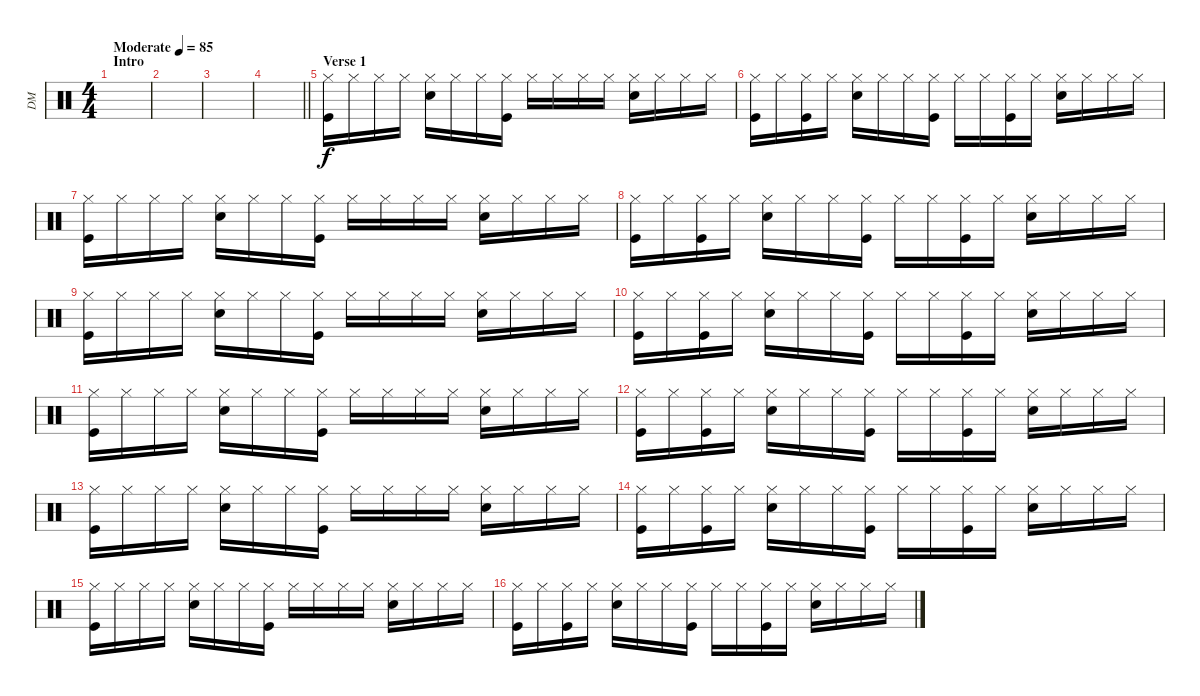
\track ("DM" "DM") {instrument percussion}
\staff {score}
\articulation defaults
\ts (4 4)
\section ("" "Intro")
\tempo (85 "Moderate")
\clef neutral
\ks c
|
|
|
\barLineRight lightlight
|
\section ("" "Verse 1")
("Hi-Hat (closed)" "Kick (hit)").16 "Hi-Hat (closed)".16 "Hi-Hat (closed)".16 "Hi-Hat (closed)".16 ("Hi-Hat (closed)" "Electric Snare (hit)").16 "Hi-Hat (closed)".16 "Hi-Hat (closed)".16 ("Hi-Hat (closed)" "Kick (hit)").16 "Hi-Hat (closed)".16 "Hi-Hat (closed)".16 "Hi-Hat (closed)".16 "Hi-Hat (closed)".16 ("Hi-Hat (closed)" "Electric Snare (hit)").16 "Hi-Hat (closed)".16 "Hi-Hat (closed)".16 "Hi-Hat (closed)".16 |
("Hi-Hat (closed)" "Kick (hit)").16 "Hi-Hat (closed)".16 ("Hi-Hat (closed)" "Kick (hit)").16 "Hi-Hat (closed)".16 ("Hi-Hat (closed)" "Electric Snare (hit)").16 "Hi-Hat (closed)".16 "Hi-Hat (closed)".16 ("Hi-Hat (closed)" "Kick (hit)").16 "Hi-Hat (closed)".16 "Hi-Hat (closed)".16 ("Hi-Hat (closed)" "Kick (hit)").16 "Hi-Hat (closed)".16 ("Hi-Hat (closed)" "Electric Snare (hit)").16 "Hi-Hat (closed)".16 "Hi-Hat (closed)".16 "Hi-Hat (closed)".16 |
("Hi-Hat (closed)" "Kick (hit)").16 "Hi-Hat (closed)".16 "Hi-Hat (closed)".16 "Hi-Hat (closed)".16 ("Hi-Hat (closed)" "Electric Snare (hit)").16 "Hi-Hat (closed)".16 "Hi-Hat (closed)".16 ("Hi-Hat (closed)" "Kick (hit)").16 "Hi-Hat (closed)".16 "Hi-Hat (closed)".16 "Hi-Hat (closed)".16 "Hi-Hat (closed)".16 ("Hi-Hat (closed)" "Electric Snare (hit)").16 "Hi-Hat (closed)".16 "Hi-Hat (closed)".16 "Hi-Hat (closed)".16 |
("Hi-Hat (closed)" "Kick (hit)").16 "Hi-Hat (closed)".16 ("Hi-Hat (closed)" "Kick (hit)").16 "Hi-Hat (closed)".16 ("Hi-Hat (closed)" "Electric Snare (hit)").16 "Hi-Hat (closed)".16 "Hi-Hat (closed)".16 ("Hi-Hat (closed)" "Kick (hit)").16 "Hi-Hat (closed)".16 "Hi-Hat (closed)".16 ("Hi-Hat (closed)" "Kick (hit)").16 "Hi-Hat (closed)".16 ("Hi-Hat (closed)" "Electric Snare (hit)").16 "Hi-Hat (closed)".16 "Hi-Hat (closed)".16 "Hi-Hat (closed)".16 |
("Hi-Hat (closed)" "Kick (hit)").16 "Hi-Hat (closed)".16 "Hi-Hat (closed)".16 "Hi-Hat (closed)".16 ("Hi-Hat (closed)" "Electric Snare (hit)").16 "Hi-Hat (closed)".16 "Hi-Hat (closed)".16 ("Hi-Hat (closed)" "Kick (hit)").16 "Hi-Hat (closed)".16 "Hi-Hat (closed)".16 "Hi-Hat (closed)".16 "Hi-Hat (closed)".16 ("Hi-Hat (closed)" "Electric Snare (hit)").16 "Hi-Hat (closed)".16 "Hi-Hat (closed)".16 "Hi-Hat (closed)".16 |
("Hi-Hat (closed)" "Kick (hit)").16 "Hi-Hat (closed)".16 ("Hi-Hat (closed)" "Kick (hit)").16 "Hi-Hat (closed)".16 ("Hi-Hat (closed)" "Electric Snare (hit)").16 "Hi-Hat (closed)".16 "Hi-Hat (closed)".16 ("Hi-Hat (closed)" "Kick (hit)").16 "Hi-Hat (closed)".16 "Hi-Hat (closed)".16 ("Hi-Hat (closed)" "Kick (hit)").16 "Hi-Hat (closed)".16 ("Hi-Hat (closed)" "Electric Snare (hit)").16 "Hi-Hat (closed)".16 "Hi-Hat (closed)".16 "Hi-Hat (closed)".16 |
("Hi-Hat (closed)" "Kick (hit)").16 "Hi-Hat (closed)".16 "Hi-Hat (closed)".16 "Hi-Hat (closed)".16 ("Hi-Hat (closed)" "Electric Snare (hit)").16 "Hi-Hat (closed)".16 "Hi-Hat (closed)".16 ("Hi-Hat (closed)" "Kick (hit)").16 "Hi-Hat (closed)".16 "Hi-Hat (closed)".16 "Hi-Hat (closed)".16 "Hi-Hat (closed)".16 ("Hi-Hat (closed)" "Electric Snare (hit)").16 "Hi-Hat (closed)".16 "Hi-Hat (closed)".16 "Hi-Hat (closed)".16 |
("Hi-Hat (closed)" "Kick (hit)").16 "Hi-Hat (closed)".16 ("Hi-Hat (closed)" "Kick (hit)").16 "Hi-Hat (closed)".16 ("Hi-Hat (closed)" "Electric Snare (hit)").16 "Hi-Hat (closed)".16 "Hi-Hat (closed)".16 ("Hi-Hat (closed)" "Kick (hit)").16 "Hi-Hat (closed)".16 "Hi-Hat (closed)".16 ("Hi-Hat (closed)" "Kick (hit)").16 "Hi-Hat (closed)".16 ("Hi-Hat (closed)" "Electric Snare (hit)").16 "Hi-Hat (closed)".16 "Hi-Hat (closed)".16 "Hi-Hat (closed)".16 |
("Hi-Hat (closed)" "Kick (hit)").16 "Hi-Hat (closed)".16 "Hi-Hat (closed)".16 "Hi-Hat (closed)".16 ("Hi-Hat (closed)" "Electric Snare (hit)").16 "Hi-Hat (closed)".16 "Hi-Hat (closed)".16 ("Hi-Hat (closed)" "Kick (hit)").16 "Hi-Hat (closed)".16 "Hi-Hat (closed)".16 "Hi-Hat (closed)".16 "Hi-Hat (closed)".16 ("Hi-Hat (closed)" "Electric Snare (hit)").16 "Hi-Hat (closed)".16 "Hi-Hat (closed)".16 "Hi-Hat (closed)".16 |
("Hi-Hat (closed)" "Kick (hit)").16 "Hi-Hat (closed)".16 ("Hi-Hat (closed)" "Kick (hit)").16 "Hi-Hat (closed)".16 ("Hi-Hat (closed)" "Electric Snare (hit)").16 "Hi-Hat (closed)".16 "Hi-Hat (closed)".16 ("Hi-Hat (closed)" "Kick (hit)").16 "Hi-Hat (closed)".16 "Hi-Hat (closed)".16 ("Hi-Hat (closed)" "Kick (hit)").16 "Hi-Hat (closed)".16 ("Hi-Hat (closed)" "Electric Snare (hit)").16 "Hi-Hat (closed)".16 "Hi-Hat (closed)".16 "Hi-Hat (closed)".16 |
("Hi-Hat (closed)" "Kick (hit)").16 "Hi-Hat (closed)".16 "Hi-Hat (closed)".16 "Hi-Hat (closed)".16 ("Hi-Hat (closed)" "Electric Snare (hit)").16 "Hi-Hat (closed)".16 "Hi-Hat (closed)".16 ("Hi-Hat (closed)" "Kick (hit)").16 "Hi-Hat (closed)".16 "Hi-Hat (closed)".16 "Hi-Hat (closed)".16 "Hi-Hat (closed)".16 ("Hi-Hat (closed)" "Electric Snare (hit)").16 "Hi-Hat (closed)".16 "Hi-Hat (closed)".16 "Hi-Hat (closed)".16 |
("Hi-Hat (closed)" "Kick (hit)").16 "Hi-Hat (closed)".16 ("Hi-Hat (closed)" "Kick (hit)").16 "Hi-Hat (closed)".16 ("Hi-Hat (closed)" "Electric Snare (hit)").16 "Hi-Hat (closed)".16 "Hi-Hat (closed)".16 ("Hi-Hat (closed)" "Kick (hit)").16 "Hi-Hat (closed)".16 "Hi-Hat (closed)".16 ("Hi-Hat (closed)" "Kick (hit)").16 "Hi-Hat (closed)".16 ("Hi-Hat (closed)" "Electric Snare (hit)").16 "Hi-Hat (closed)".16 "Hi-Hat (closed)".16 "Hi-Hat (closed)".16
